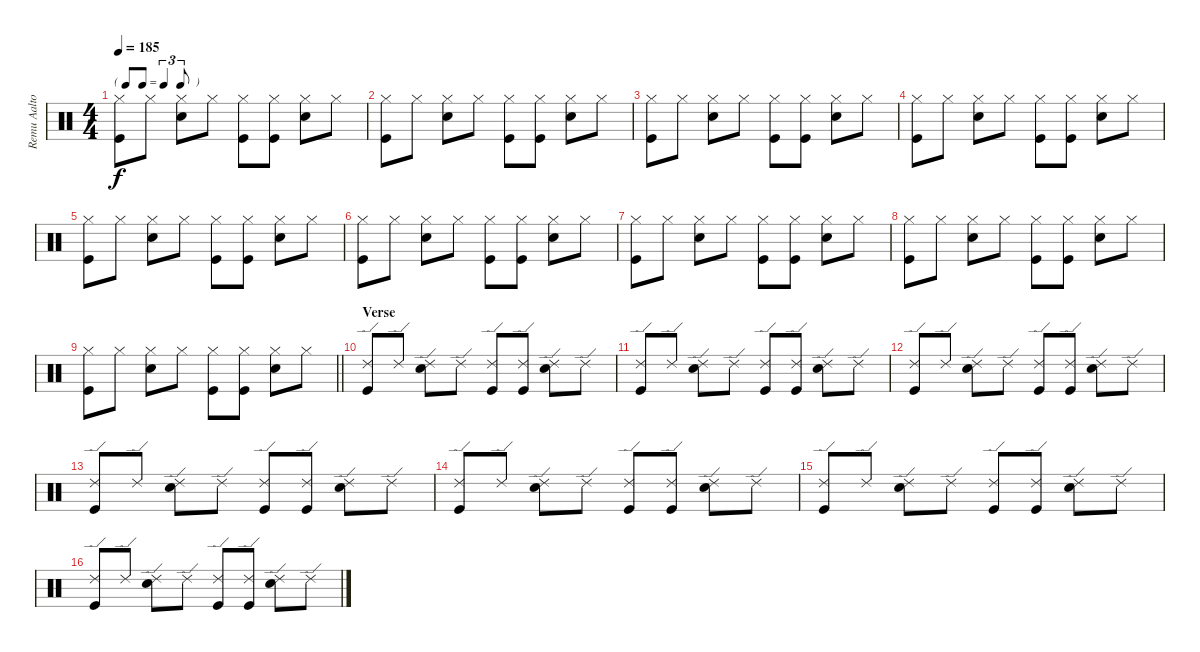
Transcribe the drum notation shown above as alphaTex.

\track ("Remu Aaltonen" "Remu Aalto") {instrument percussion}
\staff {score}
\articulation defaults
\ts (4 4)
\tf triplet8th
\tempo 185
\clef neutral
\ks c
("Hi-Hat (closed)" "Kick (hit)").8{dy f} "Hi-Hat (closed)".8 ("Hi-Hat (closed)" "Snare (hit) 2").8 "Hi-Hat (closed)".8 ("Hi-Hat (closed)" "Kick (hit)").8 ("Hi-Hat (closed)" "Kick (hit)").8 ("Hi-Hat (closed)" "Snare (hit) 2").8 "Hi-Hat (closed)".8 |
("Hi-Hat (closed)" "Kick (hit)").8 "Hi-Hat (closed)".8 ("Hi-Hat (closed)" "Snare (hit) 2").8 "Hi-Hat (closed)".8 ("Hi-Hat (closed)" "Kick (hit)").8 ("Hi-Hat (closed)" "Kick (hit)").8 ("Hi-Hat (closed)" "Snare (hit) 2").8 "Hi-Hat (closed)".8 |
("Hi-Hat (closed)" "Kick (hit)").8 "Hi-Hat (closed)".8 ("Hi-Hat (closed)" "Snare (hit) 2").8 "Hi-Hat (closed)".8 ("Hi-Hat (closed)" "Kick (hit)").8 ("Hi-Hat (closed)" "Kick (hit)").8 ("Hi-Hat (closed)" "Snare (hit) 2").8 "Hi-Hat (closed)".8 |
("Hi-Hat (closed)" "Kick (hit)").8 "Hi-Hat (closed)".8 ("Hi-Hat (closed)" "Snare (hit) 2").8 "Hi-Hat (closed)".8 ("Hi-Hat (closed)" "Kick (hit)").8 ("Hi-Hat (closed)" "Kick (hit)").8 ("Hi-Hat (closed)" "Snare (hit) 2").8 "Hi-Hat (closed)".8 |
("Hi-Hat (closed)" "Kick (hit)").8 "Hi-Hat (closed)".8 ("Hi-Hat (closed)" "Snare (hit) 2").8 "Hi-Hat (closed)".8 ("Hi-Hat (closed)" "Kick (hit)").8 ("Hi-Hat (closed)" "Kick (hit)").8 ("Hi-Hat (closed)" "Snare (hit) 2").8 "Hi-Hat (closed)".8 |
("Hi-Hat (closed)" "Kick (hit)").8 "Hi-Hat (closed)".8 ("Hi-Hat (closed)" "Snare (hit) 2").8 "Hi-Hat (closed)".8 ("Hi-Hat (closed)" "Kick (hit)").8 ("Hi-Hat (closed)" "Kick (hit)").8 ("Hi-Hat (closed)" "Snare (hit) 2").8 "Hi-Hat (closed)".8 |
("Hi-Hat (closed)" "Kick (hit)").8 "Hi-Hat (closed)".8 ("Hi-Hat (closed)" "Snare (hit) 2").8 "Hi-Hat (closed)".8 ("Hi-Hat (closed)" "Kick (hit)").8 ("Hi-Hat (closed)" "Kick (hit)").8 ("Hi-Hat (closed)" "Snare (hit) 2").8 "Hi-Hat (closed)".8 |
("Hi-Hat (closed)" "Kick (hit)").8 "Hi-Hat (closed)".8 ("Hi-Hat (closed)" "Snare (hit) 2").8 "Hi-Hat (closed)".8 ("Hi-Hat (closed)" "Kick (hit)").8 ("Hi-Hat (closed)" "Kick (hit)").8 ("Hi-Hat (closed)" "Snare (hit) 2").8 "Hi-Hat (closed)".8 |
\barLineRight lightlight
("Hi-Hat (closed)" "Kick (hit)").8 "Hi-Hat (closed)".8 ("Hi-Hat (closed)" "Snare (hit) 2").8 "Hi-Hat (closed)".8 ("Hi-Hat (closed)" "Kick (hit)").8 ("Hi-Hat (closed)" "Kick (hit)").8 ("Hi-Hat (closed)" "Snare (hit) 2").8 "Hi-Hat (closed)".8 |
\section ("" "Verse")
("Ride (edge) 2" "Kick (hit)").8 "Ride (edge) 2".8 ("Ride (edge) 2" "Snare (hit) 2").8 "Ride (edge) 2".8 ("Ride (edge) 2" "Kick (hit)").8 ("Ride (edge) 2" "Kick (hit)").8 ("Ride (edge) 2" "Snare (hit) 2").8 "Ride (edge) 2".8 |
("Ride (edge) 2" "Kick (hit)").8 "Ride (edge) 2".8 ("Ride (edge) 2" "Snare (hit) 2").8 "Ride (edge) 2".8 ("Ride (edge) 2" "Kick (hit)").8 ("Ride (edge) 2" "Kick (hit)").8 ("Ride (edge) 2" "Snare (hit) 2").8 "Ride (edge) 2".8 |
("Ride (edge) 2" "Kick (hit)").8 "Ride (edge) 2".8 ("Ride (edge) 2" "Snare (hit) 2").8 "Ride (edge) 2".8 ("Ride (edge) 2" "Kick (hit)").8 ("Ride (edge) 2" "Kick (hit)").8 ("Ride (edge) 2" "Snare (hit) 2").8 "Ride (edge) 2".8 |
("Ride (edge) 2" "Kick (hit)").8 "Ride (edge) 2".8 ("Ride (edge) 2" "Snare (hit) 2").8 "Ride (edge) 2".8 ("Ride (edge) 2" "Kick (hit)").8 ("Ride (edge) 2" "Kick (hit)").8 ("Ride (edge) 2" "Snare (hit) 2").8 "Ride (edge) 2".8 |
("Ride (edge) 2" "Kick (hit)").8 "Ride (edge) 2".8 ("Ride (edge) 2" "Snare (hit) 2").8 "Ride (edge) 2".8 ("Ride (edge) 2" "Kick (hit)").8 ("Ride (edge) 2" "Kick (hit)").8 ("Ride (edge) 2" "Snare (hit) 2").8 "Ride (edge) 2".8 |
("Ride (edge) 2" "Kick (hit)").8 "Ride (edge) 2".8 ("Ride (edge) 2" "Snare (hit) 2").8 "Ride (edge) 2".8 ("Ride (edge) 2" "Kick (hit)").8 ("Ride (edge) 2" "Kick (hit)").8 ("Ride (edge) 2" "Snare (hit) 2").8 "Ride (edge) 2".8 |
("Ride (edge) 2" "Kick (hit)").8 "Ride (edge) 2".8 ("Ride (edge) 2" "Snare (hit) 2").8 "Ride (edge) 2".8 ("Ride (edge) 2" "Kick (hit)").8 ("Ride (edge) 2" "Kick (hit)").8 ("Ride (edge) 2" "Snare (hit) 2").8 "Ride (edge) 2".8
